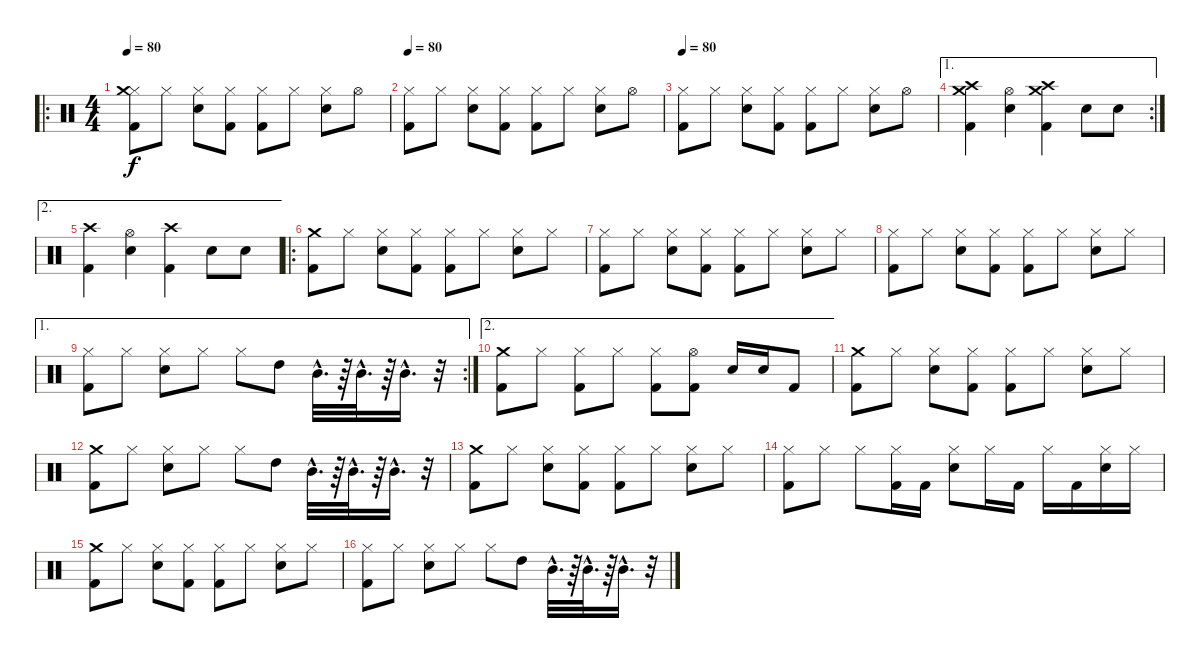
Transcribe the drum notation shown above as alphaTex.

\track "" {instrument percussion}
\staff {score}
\articulation defaults
\ro
\ts (4 4)
\tempo 80
\clef neutral
\ks c
("Hi-Hat (closed)" "Crash medium (hit)" "Kick (hit) 2").8{dy f volume 16 balance 8} "Hi-Hat (closed)".8 ("Hi-Hat (closed)" "Snare (hit) 2").8 ("Hi-Hat (closed)" "Kick (hit) 2").8 ("Hi-Hat (closed)" "Kick (hit) 2").8 "Hi-Hat (closed)".8 ("Hi-Hat (closed)" "Snare (hit) 2").8 "Hi-Hat (open)".8 |
\tempo 80
("Hi-Hat (closed)" "Kick (hit) 2").8{volume 16 balance 8} "Hi-Hat (closed)".8 ("Hi-Hat (closed)" "Snare (hit) 2").8 ("Hi-Hat (closed)" "Kick (hit) 2").8 ("Hi-Hat (closed)" "Kick (hit) 2").8 "Hi-Hat (closed)".8 ("Hi-Hat (closed)" "Snare (hit) 2").8 "Hi-Hat (open)".8 |
\tempo 80
("Hi-Hat (closed)" "Kick (hit) 2").8{volume 16 balance 8} "Hi-Hat (closed)".8 ("Hi-Hat (closed)" "Snare (hit) 2").8 ("Hi-Hat (closed)" "Kick (hit) 2").8 ("Hi-Hat (closed)" "Kick (hit) 2").8 "Hi-Hat (closed)".8 ("Hi-Hat (closed)" "Snare (hit) 2").8 "Hi-Hat (open)".8 |
\ae 1
\rc 2
("Crash high (hit)" "Crash medium (hit)" "Kick (hit) 2").4 ("Hi-Hat (open)" "Electric Snare (hit)").4 ("Crash high (hit)" "Crash medium (hit)" "Kick (hit) 2").4 "Electric Snare (hit)".8 "Electric Snare (hit)".8 |
\ae 2
("Crash high (hit)" "Kick (hit) 2").4 ("Hi-Hat (open)" "Electric Snare (hit)").4 ("Crash high (hit)" "Kick (hit) 2").4 "Electric Snare (hit)".8 "Electric Snare (hit)".8 |
\ro
("Kick (hit) 2" "Crash medium (hit)").8 "Hi-Hat (closed)".8 ("Hi-Hat (closed)" "Snare (hit) 2").8 ("Hi-Hat (closed)" "Kick (hit) 2").8 ("Kick (hit) 2" "Hi-Hat (closed)").8 "Hi-Hat (closed)".8 ("Hi-Hat (closed)" "Snare (hit) 2").8 "Hi-Hat (closed)".8 |
("Kick (hit) 2" "Hi-Hat (closed)").8 "Hi-Hat (closed)".8 ("Hi-Hat (closed)" "Snare (hit) 2").8 ("Hi-Hat (closed)" "Kick (hit) 2").8 ("Kick (hit) 2" "Hi-Hat (closed)").8 "Hi-Hat (closed)".8 ("Hi-Hat (closed)" "Snare (hit) 2").8 "Hi-Hat (closed)".8 |
("Kick (hit) 2" "Hi-Hat (closed)").8 "Hi-Hat (closed)".8 ("Hi-Hat (closed)" "Snare (hit) 2").8 ("Hi-Hat (closed)" "Kick (hit) 2").8 ("Kick (hit) 2" "Hi-Hat (closed)").8 "Hi-Hat (closed)".8 ("Hi-Hat (closed)" "Snare (hit) 2").8 "Hi-Hat (closed)".8 |
\ae 1
\rc 2
("Hi-Hat (closed)" "Kick (hit) 2").8 "Hi-Hat (closed)".8 ("Snare (hit) 2" "Hi-Hat (closed)").8 "Hi-Hat (closed)".8 "Hi-Hat (closed)".8 "High Tom (hit)".8 "Mid Tom (hit)"{hac}.32{d} r.64 "Mid Tom (hit)"{hac}.32{d} r.64 "Mid Tom (hit)"{hac}.16{d} r.32 |
\ae 2
("Crash medium (hit)" "Kick (hit) 2").8 "Hi-Hat (closed)".8 ("Hi-Hat (closed)" "Kick (hit) 2").8 "Hi-Hat (closed)".8 ("Hi-Hat (closed)" "Kick (hit) 2").8 ("Hi-Hat (open)" "Kick (hit) 2").8 "Snare (hit) 2".16 "Snare (hit) 2".16 "Kick (hit) 2".8 |
("Kick (hit) 2" "Crash medium (hit)").8 "Hi-Hat (closed)".8 ("Hi-Hat (closed)" "Snare (hit) 2").8 ("Hi-Hat (closed)" "Kick (hit) 2").8 ("Kick (hit) 2" "Hi-Hat (closed)").8 "Hi-Hat (closed)".8 ("Hi-Hat (closed)" "Snare (hit) 2").8 "Hi-Hat (closed)".8 |
("Crash medium (hit)" "Kick (hit) 2").8 "Hi-Hat (closed)".8 ("Snare (hit) 2" "Hi-Hat (closed)").8 "Hi-Hat (closed)".8 "Hi-Hat (closed)".8 "High Tom (hit)".8 "Mid Tom (hit)"{hac}.32{d} r.64 "Mid Tom (hit)"{hac}.32{d} r.64 "Mid Tom (hit)"{hac}.16{d} r.32 |
("Kick (hit) 2" "Crash medium (hit)").8 "Hi-Hat (closed)".8 ("Hi-Hat (closed)" "Snare (hit) 2").8 ("Hi-Hat (closed)" "Kick (hit) 2").8 ("Kick (hit) 2" "Hi-Hat (closed)").8 "Hi-Hat (closed)".8 ("Hi-Hat (closed)" "Snare (hit) 2").8 "Hi-Hat (closed)".8 |
("Hi-Hat (closed)" "Kick (hit) 2").8 "Hi-Hat (closed)".8 "Hi-Hat (closed)".8 ("Hi-Hat (closed)" "Kick (hit) 2").16 "Kick (hit) 2".16 ("Hi-Hat (closed)" "Electric Snare (hit)").8 "Hi-Hat (closed)".16 "Kick (hit) 2".16 "Hi-Hat (closed)".16 "Kick (hit) 2".16 ("Hi-Hat (closed)" "Electric Snare (hit)").16 "Hi-Hat (closed)".16 |
("Kick (hit) 2" "Crash medium (hit)").8 "Hi-Hat (closed)".8 ("Hi-Hat (closed)" "Snare (hit) 2").8 ("Hi-Hat (closed)" "Kick (hit) 2").8 ("Kick (hit) 2" "Hi-Hat (closed)").8 "Hi-Hat (closed)".8 ("Hi-Hat (closed)" "Snare (hit) 2").8 "Hi-Hat (closed)".8 |
("Hi-Hat (closed)" "Kick (hit) 2").8 "Hi-Hat (closed)".8 ("Snare (hit) 2" "Hi-Hat (closed)").8 "Hi-Hat (closed)".8 "Hi-Hat (closed)".8 "High Tom (hit)".8 "Mid Tom (hit)"{hac}.32{d} r.64 "Mid Tom (hit)"{hac}.32{d} r.64 "Mid Tom (hit)"{hac}.16{d} r.32
